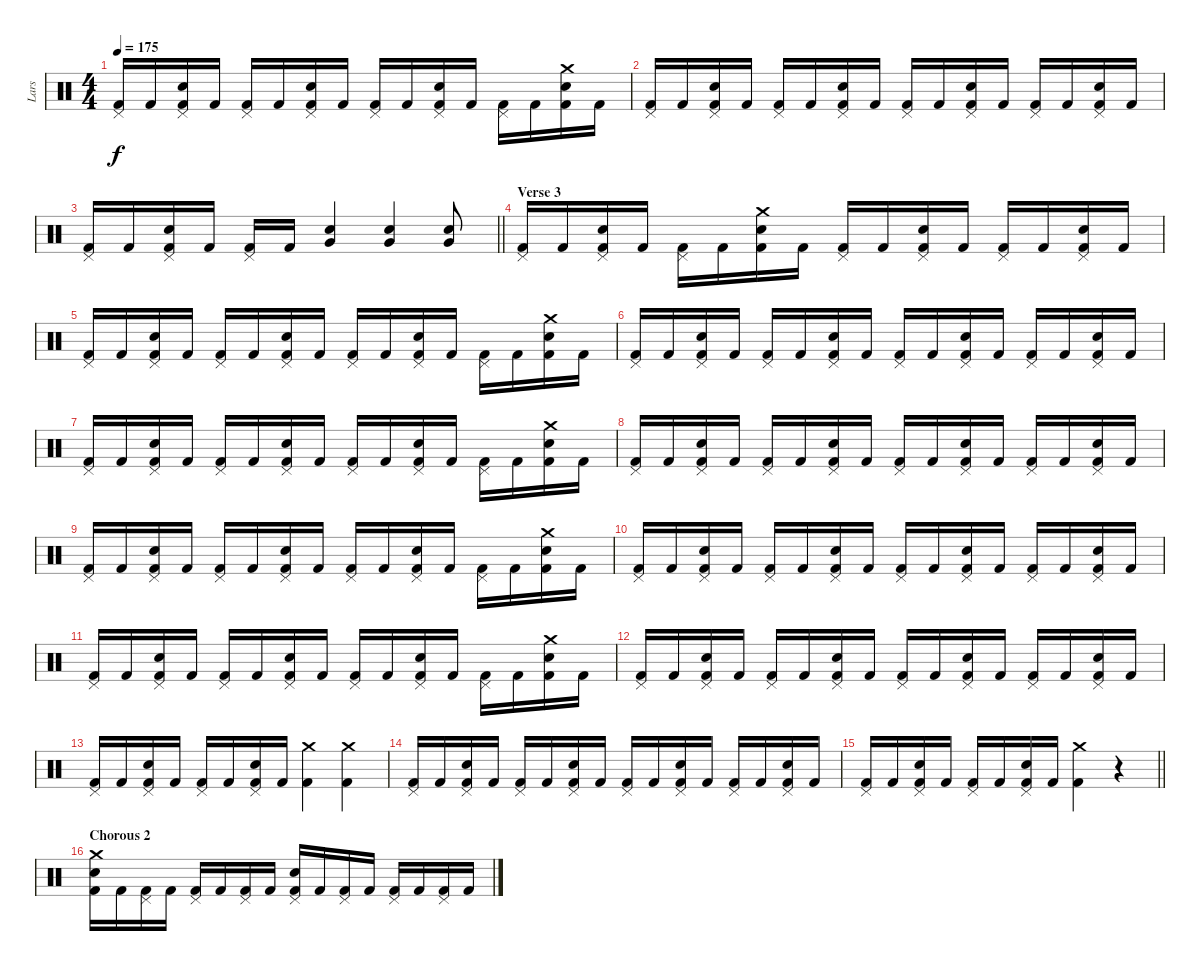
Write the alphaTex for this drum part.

\track ("Lars" "Lars") {instrument percussion}
\staff {score}
\articulation defaults
\ts (4 4)
\tempo 175
\clef neutral
\ks c
("Pedal Hi-Hat (hit)" "Kick (hit) 2").16{dy f} "Kick (hit) 2".16 ("Pedal Hi-Hat (hit)" "Electric Snare (hit)" "Kick (hit) 2").16 "Kick (hit) 2".16 ("Pedal Hi-Hat (hit)" "Kick (hit) 2").16 "Kick (hit) 2".16 ("Pedal Hi-Hat (hit)" "Electric Snare (hit)" "Kick (hit) 2").16 "Kick (hit) 2".16 ("Pedal Hi-Hat (hit)" "Kick (hit) 2").16 "Kick (hit) 2".16 ("Pedal Hi-Hat (hit)" "Electric Snare (hit)" "Kick (hit) 2").16 "Kick (hit) 2".16 ("Pedal Hi-Hat (hit)" "Kick (hit) 2").16 "Kick (hit) 2".16 ("Crash medium (hit)" "Electric Snare (hit)" "Kick (hit) 2").16 "Kick (hit) 2".16 |
("Pedal Hi-Hat (hit)" "Kick (hit) 2").16 "Kick (hit) 2".16 ("Pedal Hi-Hat (hit)" "Electric Snare (hit)" "Kick (hit) 2").16 "Kick (hit) 2".16 ("Pedal Hi-Hat (hit)" "Kick (hit) 2").16 "Kick (hit) 2".16 ("Pedal Hi-Hat (hit)" "Electric Snare (hit)" "Kick (hit) 2").16 "Kick (hit) 2".16 ("Pedal Hi-Hat (hit)" "Kick (hit) 2").16 "Kick (hit) 2".16 ("Pedal Hi-Hat (hit)" "Electric Snare (hit)" "Kick (hit) 2").16 "Kick (hit) 2".16 ("Pedal Hi-Hat (hit)" "Kick (hit) 2").16 "Kick (hit) 2".16 ("Pedal Hi-Hat (hit)" "Electric Snare (hit)" "Kick (hit) 2").16 "Kick (hit) 2".16 |
\barLineRight lightlight
("Pedal Hi-Hat (hit)" "Kick (hit) 2").16 "Kick (hit) 2".16 ("Pedal Hi-Hat (hit)" "Electric Snare (hit)" "Kick (hit) 2").16 "Kick (hit) 2".16 ("Pedal Hi-Hat (hit)" "Kick (hit) 2").16 "Kick (hit) 2".16 ("Electric Snare (hit)" "Very Low Tom (hit)").4 ("Electric Snare (hit)" "Very Low Tom (hit)").4 ("Electric Snare (hit)" "Very Low Tom (hit)").8 |
\section ("" "Verse 3")
("Pedal Hi-Hat (hit)" "Kick (hit) 2").16 "Kick (hit) 2".16 ("Pedal Hi-Hat (hit)" "Electric Snare (hit)" "Kick (hit) 2").16 "Kick (hit) 2".16 ("Pedal Hi-Hat (hit)" "Kick (hit) 2").16 "Kick (hit) 2".16 ("Crash medium (hit)" "Electric Snare (hit)" "Kick (hit) 2").16 "Kick (hit) 2".16 ("Pedal Hi-Hat (hit)" "Kick (hit) 2").16 "Kick (hit) 2".16 ("Pedal Hi-Hat (hit)" "Electric Snare (hit)" "Kick (hit) 2").16 "Kick (hit) 2".16 ("Pedal Hi-Hat (hit)" "Kick (hit) 2").16 "Kick (hit) 2".16 ("Pedal Hi-Hat (hit)" "Electric Snare (hit)" "Kick (hit) 2").16 "Kick (hit) 2".16 |
("Pedal Hi-Hat (hit)" "Kick (hit) 2").16 "Kick (hit) 2".16 ("Pedal Hi-Hat (hit)" "Electric Snare (hit)" "Kick (hit) 2").16 "Kick (hit) 2".16 ("Pedal Hi-Hat (hit)" "Kick (hit) 2").16 "Kick (hit) 2".16 ("Pedal Hi-Hat (hit)" "Electric Snare (hit)" "Kick (hit) 2").16 "Kick (hit) 2".16 ("Pedal Hi-Hat (hit)" "Kick (hit) 2").16 "Kick (hit) 2".16 ("Pedal Hi-Hat (hit)" "Electric Snare (hit)" "Kick (hit) 2").16 "Kick (hit) 2".16 ("Pedal Hi-Hat (hit)" "Kick (hit) 2").16 "Kick (hit) 2".16 ("Crash medium (hit)" "Electric Snare (hit)" "Kick (hit) 2").16 "Kick (hit) 2".16 |
("Pedal Hi-Hat (hit)" "Kick (hit) 2").16 "Kick (hit) 2".16 ("Pedal Hi-Hat (hit)" "Electric Snare (hit)" "Kick (hit) 2").16 "Kick (hit) 2".16 ("Pedal Hi-Hat (hit)" "Kick (hit) 2").16 "Kick (hit) 2".16 ("Pedal Hi-Hat (hit)" "Electric Snare (hit)" "Kick (hit) 2").16 "Kick (hit) 2".16 ("Pedal Hi-Hat (hit)" "Kick (hit) 2").16 "Kick (hit) 2".16 ("Pedal Hi-Hat (hit)" "Electric Snare (hit)" "Kick (hit) 2").16 "Kick (hit) 2".16 ("Pedal Hi-Hat (hit)" "Kick (hit) 2").16 "Kick (hit) 2".16 ("Pedal Hi-Hat (hit)" "Electric Snare (hit)" "Kick (hit) 2").16 "Kick (hit) 2".16 |
("Pedal Hi-Hat (hit)" "Kick (hit) 2").16 "Kick (hit) 2".16 ("Pedal Hi-Hat (hit)" "Electric Snare (hit)" "Kick (hit) 2").16 "Kick (hit) 2".16 ("Pedal Hi-Hat (hit)" "Kick (hit) 2").16 "Kick (hit) 2".16 ("Pedal Hi-Hat (hit)" "Electric Snare (hit)" "Kick (hit) 2").16 "Kick (hit) 2".16 ("Pedal Hi-Hat (hit)" "Kick (hit) 2").16 "Kick (hit) 2".16 ("Pedal Hi-Hat (hit)" "Electric Snare (hit)" "Kick (hit) 2").16 "Kick (hit) 2".16 ("Pedal Hi-Hat (hit)" "Kick (hit) 2").16 "Kick (hit) 2".16 ("Crash medium (hit)" "Electric Snare (hit)" "Kick (hit) 2").16 "Kick (hit) 2".16 |
("Pedal Hi-Hat (hit)" "Kick (hit) 2").16 "Kick (hit) 2".16 ("Pedal Hi-Hat (hit)" "Electric Snare (hit)" "Kick (hit) 2").16 "Kick (hit) 2".16 ("Pedal Hi-Hat (hit)" "Kick (hit) 2").16 "Kick (hit) 2".16 ("Pedal Hi-Hat (hit)" "Electric Snare (hit)" "Kick (hit) 2").16 "Kick (hit) 2".16 ("Pedal Hi-Hat (hit)" "Kick (hit) 2").16 "Kick (hit) 2".16 ("Pedal Hi-Hat (hit)" "Electric Snare (hit)" "Kick (hit) 2").16 "Kick (hit) 2".16 ("Pedal Hi-Hat (hit)" "Kick (hit) 2").16 "Kick (hit) 2".16 ("Pedal Hi-Hat (hit)" "Electric Snare (hit)" "Kick (hit) 2").16 "Kick (hit) 2".16 |
("Pedal Hi-Hat (hit)" "Kick (hit) 2").16 "Kick (hit) 2".16 ("Pedal Hi-Hat (hit)" "Electric Snare (hit)" "Kick (hit) 2").16 "Kick (hit) 2".16 ("Pedal Hi-Hat (hit)" "Kick (hit) 2").16 "Kick (hit) 2".16 ("Pedal Hi-Hat (hit)" "Electric Snare (hit)" "Kick (hit) 2").16 "Kick (hit) 2".16 ("Pedal Hi-Hat (hit)" "Kick (hit) 2").16 "Kick (hit) 2".16 ("Pedal Hi-Hat (hit)" "Electric Snare (hit)" "Kick (hit) 2").16 "Kick (hit) 2".16 ("Pedal Hi-Hat (hit)" "Kick (hit) 2").16 "Kick (hit) 2".16 ("Crash medium (hit)" "Electric Snare (hit)" "Kick (hit) 2").16 "Kick (hit) 2".16 |
("Pedal Hi-Hat (hit)" "Kick (hit) 2").16 "Kick (hit) 2".16 ("Pedal Hi-Hat (hit)" "Electric Snare (hit)" "Kick (hit) 2").16 "Kick (hit) 2".16 ("Pedal Hi-Hat (hit)" "Kick (hit) 2").16 "Kick (hit) 2".16 ("Pedal Hi-Hat (hit)" "Electric Snare (hit)" "Kick (hit) 2").16 "Kick (hit) 2".16 ("Pedal Hi-Hat (hit)" "Kick (hit) 2").16 "Kick (hit) 2".16 ("Pedal Hi-Hat (hit)" "Electric Snare (hit)" "Kick (hit) 2").16 "Kick (hit) 2".16 ("Pedal Hi-Hat (hit)" "Kick (hit) 2").16 "Kick (hit) 2".16 ("Pedal Hi-Hat (hit)" "Electric Snare (hit)" "Kick (hit) 2").16 "Kick (hit) 2".16 |
("Pedal Hi-Hat (hit)" "Kick (hit) 2").16 "Kick (hit) 2".16 ("Pedal Hi-Hat (hit)" "Electric Snare (hit)" "Kick (hit) 2").16 "Kick (hit) 2".16 ("Pedal Hi-Hat (hit)" "Kick (hit) 2").16 "Kick (hit) 2".16 ("Pedal Hi-Hat (hit)" "Electric Snare (hit)" "Kick (hit) 2").16 "Kick (hit) 2".16 ("Pedal Hi-Hat (hit)" "Kick (hit) 2").16 "Kick (hit) 2".16 ("Pedal Hi-Hat (hit)" "Electric Snare (hit)" "Kick (hit) 2").16 "Kick (hit) 2".16 ("Pedal Hi-Hat (hit)" "Kick (hit) 2").16 "Kick (hit) 2".16 ("Crash medium (hit)" "Electric Snare (hit)" "Kick (hit) 2").16 "Kick (hit) 2".16 |
("Pedal Hi-Hat (hit)" "Kick (hit) 2").16 "Kick (hit) 2".16 ("Pedal Hi-Hat (hit)" "Electric Snare (hit)" "Kick (hit) 2").16 "Kick (hit) 2".16 ("Pedal Hi-Hat (hit)" "Kick (hit) 2").16 "Kick (hit) 2".16 ("Pedal Hi-Hat (hit)" "Electric Snare (hit)" "Kick (hit) 2").16 "Kick (hit) 2".16 ("Pedal Hi-Hat (hit)" "Kick (hit) 2").16 "Kick (hit) 2".16 ("Pedal Hi-Hat (hit)" "Electric Snare (hit)" "Kick (hit) 2").16 "Kick (hit) 2".16 ("Pedal Hi-Hat (hit)" "Kick (hit) 2").16 "Kick (hit) 2".16 ("Pedal Hi-Hat (hit)" "Electric Snare (hit)" "Kick (hit) 2").16 "Kick (hit) 2".16 |
("Pedal Hi-Hat (hit)" "Kick (hit) 2").16 "Kick (hit) 2".16 ("Pedal Hi-Hat (hit)" "Electric Snare (hit)" "Kick (hit) 2").16 "Kick (hit) 2".16 ("Pedal Hi-Hat (hit)" "Kick (hit) 2").16 "Kick (hit) 2".16 ("Pedal Hi-Hat (hit)" "Electric Snare (hit)" "Kick (hit) 2").16 "Kick (hit) 2".16 ("Crash medium (hit)" "Kick (hit) 2").4 ("Crash medium (hit)" "Kick (hit) 2").4 |
("Pedal Hi-Hat (hit)" "Kick (hit) 2").16 "Kick (hit) 2".16 ("Pedal Hi-Hat (hit)" "Electric Snare (hit)" "Kick (hit) 2").16 "Kick (hit) 2".16 ("Pedal Hi-Hat (hit)" "Kick (hit) 2").16 "Kick (hit) 2".16 ("Pedal Hi-Hat (hit)" "Electric Snare (hit)" "Kick (hit) 2").16 "Kick (hit) 2".16 ("Pedal Hi-Hat (hit)" "Kick (hit) 2").16 "Kick (hit) 2".16 ("Pedal Hi-Hat (hit)" "Electric Snare (hit)" "Kick (hit) 2").16 "Kick (hit) 2".16 ("Pedal Hi-Hat (hit)" "Kick (hit) 2").16 "Kick (hit) 2".16 ("Pedal Hi-Hat (hit)" "Electric Snare (hit)" "Kick (hit) 2").16 "Kick (hit) 2".16 |
\barLineRight lightlight
("Pedal Hi-Hat (hit)" "Kick (hit) 2").16 "Kick (hit) 2".16 ("Pedal Hi-Hat (hit)" "Electric Snare (hit)" "Kick (hit) 2").16 "Kick (hit) 2".16 ("Pedal Hi-Hat (hit)" "Kick (hit) 2").16 "Kick (hit) 2".16 ("Pedal Hi-Hat (hit)" "Electric Snare (hit)" "Kick (hit) 2").16 "Kick (hit) 2".16 ("Crash medium (hit)" "Kick (hit) 2").4 r.4 |
\section ("" "Chorous 2")
("Crash medium (hit)" "Electric Snare (hit)" "Kick (hit) 2").16 "Kick (hit) 2".16 ("Pedal Hi-Hat (hit)" "Kick (hit) 2").16 "Kick (hit) 2".16 ("Pedal Hi-Hat (hit)" "Kick (hit) 2").16 "Kick (hit) 2".16 ("Pedal Hi-Hat (hit)" "Kick (hit) 2").16 "Kick (hit) 2".16 ("Pedal Hi-Hat (hit)" "Electric Snare (hit)" "Kick (hit) 2").16 "Kick (hit) 2".16 ("Pedal Hi-Hat (hit)" "Kick (hit) 2").16 "Kick (hit) 2".16 ("Pedal Hi-Hat (hit)" "Kick (hit) 2").16 "Kick (hit) 2".16 ("Pedal Hi-Hat (hit)" "Kick (hit) 2").16 "Kick (hit) 2".16
